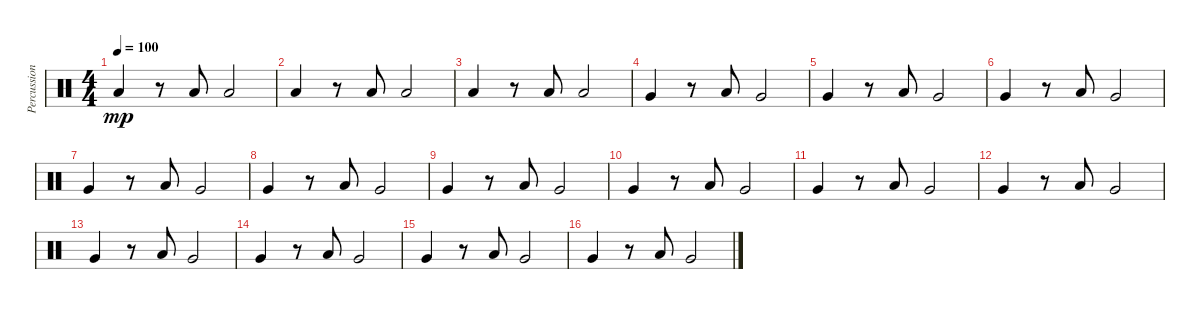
\track ("Percussion" "Percussion") {instrument percussion}
\staff {score}
\articulation defaults
\ts (4 4)
\tempo 100
\clef neutral
\ks c "Low Floor Tom (hit)".4{dy mp}
r.8 "Low Tom (hit)".8 "Low Floor Tom (hit)".2 |
"Low Floor Tom (hit)".4 r.8 "Low Tom (hit)".8 "Low Floor Tom (hit)".2 |
"Low Floor Tom (hit)".4 r.8 "Low Tom (hit)".8 "Low Floor Tom (hit)".2 |
"Very Low Tom (hit)".4 r.8 "Low Tom (hit)".8 "Very Low Tom (hit)".2 |
"Very Low Tom (hit)".4 r.8 "Low Tom (hit)".8 "Very Low Tom (hit)".2 |
"Very Low Tom (hit)".4 r.8 "Low Tom (hit)".8 "Very Low Tom (hit)".2 |
"Very Low Tom (hit)".4 r.8 "Low Tom (hit)".8 "Very Low Tom (hit)".2 |
"Very Low Tom (hit)".4 r.8 "Low Tom (hit)".8 "Very Low Tom (hit)".2 |
"Very Low Tom (hit)".4 r.8 "Low Tom (hit)".8 "Very Low Tom (hit)".2 |
"Very Low Tom (hit)".4 r.8 "Low Tom (hit)".8 "Very Low Tom (hit)".2 |
"Very Low Tom (hit)".4 r.8 "Low Tom (hit)".8 "Very Low Tom (hit)".2 |
"Very Low Tom (hit)".4 r.8 "Low Tom (hit)".8 "Very Low Tom (hit)".2 |
"Very Low Tom (hit)".4 r.8 "Low Tom (hit)".8 "Very Low Tom (hit)".2 |
"Very Low Tom (hit)".4 r.8 "Low Tom (hit)".8 "Very Low Tom (hit)".2 |
"Very Low Tom (hit)".4 r.8 "Low Tom (hit)".8 "Very Low Tom (hit)".2 |
"Very Low Tom (hit)".4 r.8 "Low Tom (hit)".8 "Very Low Tom (hit)".2
